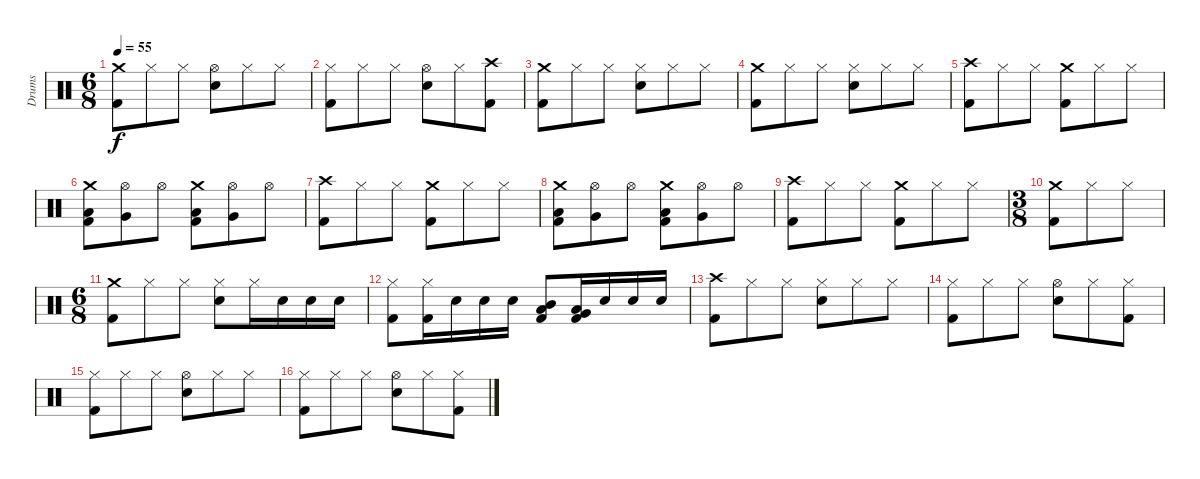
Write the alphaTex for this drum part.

\track ("Drums" "Drums") {instrument percussion}
\staff {score}
\articulation defaults
\ts (6 8)
\tempo 55
\clef neutral
\ks c
("Crash medium (hit)" "Kick (hit) 2").8{dy f} "Hi-Hat (closed)".8 "Hi-Hat (closed)".8 ("Hi-Hat (open)" "Snare (hit) 2").8 "Hi-Hat (closed)".8 "Hi-Hat (closed)".8 |
("Hi-Hat (closed)" "Kick (hit) 2").8 "Hi-Hat (closed)".8 "Hi-Hat (closed)".8 ("Hi-Hat (open)" "Snare (hit) 2").8 "Hi-Hat (closed)".8 ("Crash high (hit)" "Kick (hit) 2").8 |
("Crash medium (hit)" "Kick (hit) 2").8 "Hi-Hat (closed)".8 "Hi-Hat (closed)".8 ("Hi-Hat (closed)" "Snare (hit) 2").8 "Hi-Hat (closed)".8 "Hi-Hat (closed)".8 |
("Crash medium (hit)" "Kick (hit) 2").8 "Hi-Hat (closed)".8 "Hi-Hat (closed)".8 ("Hi-Hat (closed)" "Snare (hit) 2").8 "Hi-Hat (closed)".8 "Hi-Hat (closed)".8 |
("Crash high (hit)" "Kick (hit) 2").8 "Hi-Hat (closed)".8 "Hi-Hat (closed)".8 ("Crash medium (hit)" "Kick (hit) 2").8 "Hi-Hat (closed)".8 "Hi-Hat (closed)".8 |
("Crash medium (hit)" "Low Tom (hit)" "Kick (hit) 2").8 ("Hi-Hat (open)" "Very Low Tom (hit)").8 "Hi-Hat (open)".8 ("Crash medium (hit)" "Low Tom (hit)" "Kick (hit) 2").8 ("Hi-Hat (open)" "Very Low Tom (hit)").8 "Hi-Hat (open)".8 |
("Crash high (hit)" "Kick (hit) 2").8 "Hi-Hat (closed)".8 "Hi-Hat (closed)".8 ("Crash medium (hit)" "Kick (hit) 2").8 "Hi-Hat (closed)".8 "Hi-Hat (closed)".8 |
("Crash medium (hit)" "Low Tom (hit)" "Kick (hit) 2").8 ("Hi-Hat (open)" "Very Low Tom (hit)").8 "Hi-Hat (open)".8 ("Crash medium (hit)" "Low Tom (hit)" "Kick (hit) 2").8 ("Hi-Hat (open)" "Very Low Tom (hit)").8 "Hi-Hat (open)".8 |
("Crash high (hit)" "Kick (hit) 2").8 "Hi-Hat (closed)".8 "Hi-Hat (closed)".8 ("Crash medium (hit)" "Kick (hit) 2").8 "Hi-Hat (closed)".8 "Hi-Hat (closed)".8 |
\ts (3 8)
("Crash medium (hit)" "Kick (hit) 2").8 "Hi-Hat (closed)".8 "Hi-Hat (closed)".8 |
\ts (6 8)
("Crash medium (hit)" "Kick (hit) 2").8 "Hi-Hat (closed)".8 "Hi-Hat (closed)".8 ("Hi-Hat (closed)" "Snare (hit) 2").8 "Hi-Hat (closed)".16 "Snare (hit) 2".16 "Snare (hit) 2".16 "Snare (hit) 2".16 |
("Hi-Hat (closed)" "Kick (hit) 2").8 ("Hi-Hat (closed)" "Kick (hit) 2").16 "Snare (hit) 2".16 "Snare (hit) 2".16 "Snare (hit) 2".16 ("Mid Tom (hit)" "Low Tom (hit)" "Kick (hit) 2").8 ("Low Tom (hit)" "Very Low Tom (hit)" "Kick (hit) 2").16 "Snare (hit) 2".16 "Snare (hit) 2".16 "Snare (hit) 2".16 |
("Crash high (hit)" "Kick (hit) 2").8 "Hi-Hat (closed)".8 "Hi-Hat (closed)".8 ("Hi-Hat (closed)" "Snare (hit) 2").8 "Hi-Hat (closed)".8 "Hi-Hat (closed)".8 |
("Hi-Hat (closed)" "Kick (hit) 2").8 "Hi-Hat (closed)".8 "Hi-Hat (closed)".8 ("Hi-Hat (open)" "Snare (hit) 2").8 "Hi-Hat (closed)".8 ("Hi-Hat (closed)" "Kick (hit) 2").8 |
("Hi-Hat (closed)" "Kick (hit) 2").8 "Hi-Hat (closed)".8 "Hi-Hat (closed)".8 ("Hi-Hat (open)" "Snare (hit) 2").8 "Hi-Hat (closed)".8 "Hi-Hat (closed)".8 |
("Hi-Hat (closed)" "Kick (hit) 2").8 "Hi-Hat (closed)".8 "Hi-Hat (closed)".8 ("Hi-Hat (open)" "Snare (hit) 2").8 "Hi-Hat (closed)".8 ("Hi-Hat (closed)" "Kick (hit) 2").8
